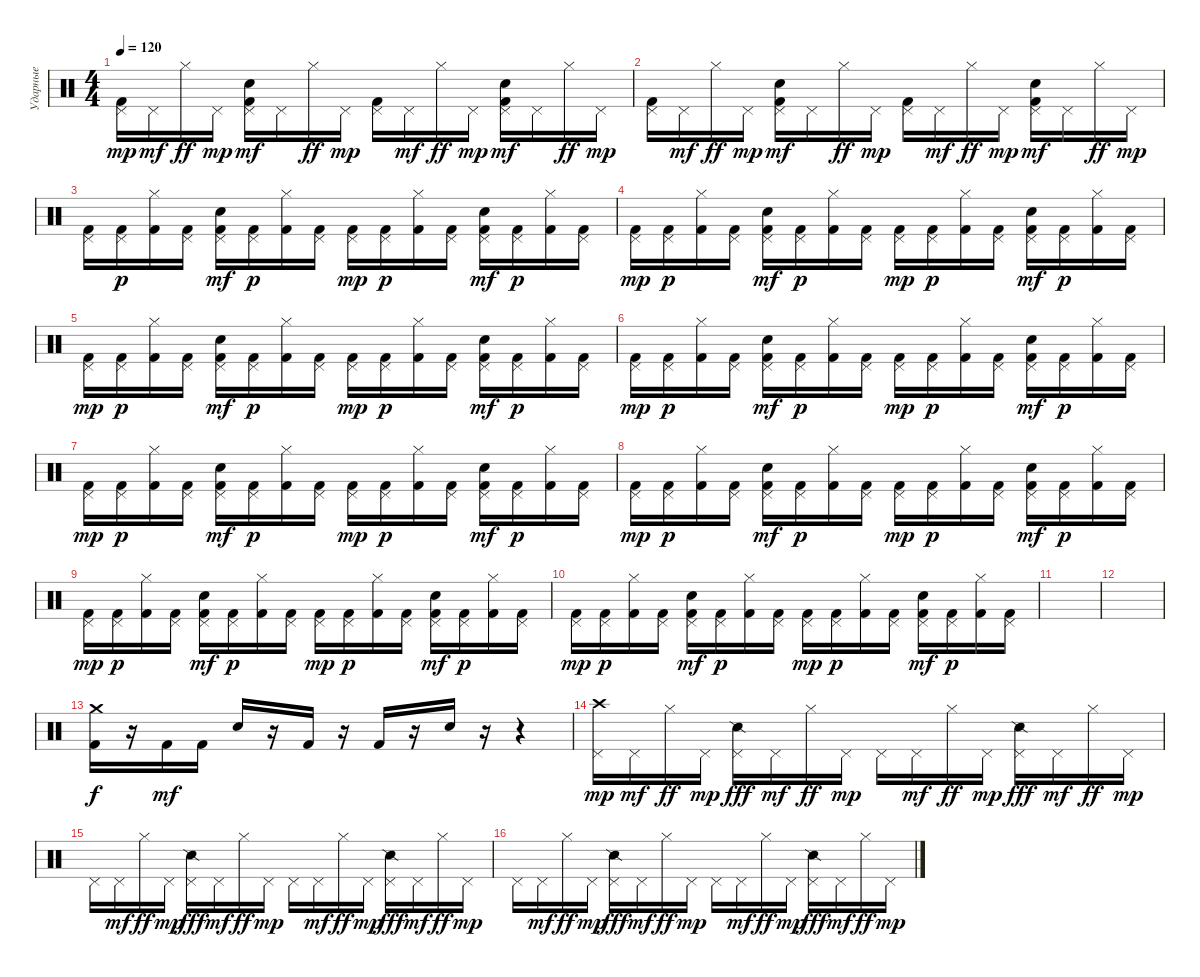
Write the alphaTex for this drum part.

\track ("Ударные" "Ударные") {instrument percussion}
\staff {score}
\articulation defaults
\ts (4 4)
\tempo 120
\clef neutral
\ks c
("Pedal Hi-Hat (hit)" "Kick (hit) 2").16{dy mp} "Pedal Hi-Hat (hit)".16{dy mf} "Hi-Hat (closed)".16{dy ff} "Pedal Hi-Hat (hit)".16{dy mp} ("Pedal Hi-Hat (hit)" "Electric Snare (hit)" "Kick (hit) 2").16{dy mf} "Pedal Hi-Hat (hit)".16 "Hi-Hat (closed)".16{dy ff} "Pedal Hi-Hat (hit)".16{dy mp} ("Pedal Hi-Hat (hit)" "Kick (hit) 2").16 "Pedal Hi-Hat (hit)".16{dy mf} "Hi-Hat (closed)".16{dy ff} "Pedal Hi-Hat (hit)".16{dy mp} ("Pedal Hi-Hat (hit)" "Electric Snare (hit)" "Kick (hit) 2").16{dy mf} "Pedal Hi-Hat (hit)".16 "Hi-Hat (closed)".16{dy ff} "Pedal Hi-Hat (hit)".16{dy mp} |
("Pedal Hi-Hat (hit)" "Kick (hit) 2").16 "Pedal Hi-Hat (hit)".16{dy mf} "Hi-Hat (closed)".16{dy ff} "Pedal Hi-Hat (hit)".16{dy mp} ("Pedal Hi-Hat (hit)" "Electric Snare (hit)" "Kick (hit) 2").16{dy mf} "Pedal Hi-Hat (hit)".16 "Hi-Hat (closed)".16{dy ff} "Pedal Hi-Hat (hit)".16{dy mp} ("Pedal Hi-Hat (hit)" "Kick (hit) 2").16 "Pedal Hi-Hat (hit)".16{dy mf} "Hi-Hat (closed)".16{dy ff} "Pedal Hi-Hat (hit)".16{dy mp} ("Pedal Hi-Hat (hit)" "Electric Snare (hit)" "Kick (hit) 2").16{dy mf} "Pedal Hi-Hat (hit)".16 "Hi-Hat (closed)".16{dy ff} "Pedal Hi-Hat (hit)".16{dy mp} |
("Pedal Hi-Hat (hit)" "Kick (hit) 2").16 ("Pedal Hi-Hat (hit)" "Kick (hit) 2").16{dy p} ("Hi-Hat (closed)" "Kick (hit) 2").16 ("Pedal Hi-Hat (hit)" "Kick (hit) 2").16 ("Pedal Hi-Hat (hit)" "Electric Snare (hit)" "Kick (hit) 2").16{dy mf} ("Pedal Hi-Hat (hit)" "Kick (hit) 2").16{dy p} ("Hi-Hat (closed)" "Kick (hit) 2").16 ("Pedal Hi-Hat (hit)" "Kick (hit) 2").16 ("Pedal Hi-Hat (hit)" "Kick (hit) 2").16{dy mp} ("Pedal Hi-Hat (hit)" "Kick (hit) 2").16{dy p} ("Hi-Hat (closed)" "Kick (hit) 2").16 ("Pedal Hi-Hat (hit)" "Kick (hit) 2").16 ("Pedal Hi-Hat (hit)" "Electric Snare (hit)" "Kick (hit) 2").16{dy mf} ("Pedal Hi-Hat (hit)" "Kick (hit) 2").16{dy p} ("Hi-Hat (closed)" "Kick (hit) 2").16 ("Pedal Hi-Hat (hit)" "Kick (hit) 2").16 |
("Pedal Hi-Hat (hit)" "Kick (hit) 2").16{dy mp} ("Pedal Hi-Hat (hit)" "Kick (hit) 2").16{dy p} ("Hi-Hat (closed)" "Kick (hit) 2").16 ("Pedal Hi-Hat (hit)" "Kick (hit) 2").16 ("Pedal Hi-Hat (hit)" "Electric Snare (hit)" "Kick (hit) 2").16{dy mf} ("Pedal Hi-Hat (hit)" "Kick (hit) 2").16{dy p} ("Hi-Hat (closed)" "Kick (hit) 2").16 ("Pedal Hi-Hat (hit)" "Kick (hit) 2").16 ("Pedal Hi-Hat (hit)" "Kick (hit) 2").16{dy mp} ("Pedal Hi-Hat (hit)" "Kick (hit) 2").16{dy p} ("Hi-Hat (closed)" "Kick (hit) 2").16 ("Pedal Hi-Hat (hit)" "Kick (hit) 2").16 ("Pedal Hi-Hat (hit)" "Electric Snare (hit)" "Kick (hit) 2").16{dy mf} ("Pedal Hi-Hat (hit)" "Kick (hit) 2").16{dy p} ("Hi-Hat (closed)" "Kick (hit) 2").16 ("Pedal Hi-Hat (hit)" "Kick (hit) 2").16 |
("Pedal Hi-Hat (hit)" "Kick (hit) 2").16{dy mp} ("Pedal Hi-Hat (hit)" "Kick (hit) 2").16{dy p} ("Hi-Hat (closed)" "Kick (hit) 2").16 ("Pedal Hi-Hat (hit)" "Kick (hit) 2").16 ("Pedal Hi-Hat (hit)" "Electric Snare (hit)" "Kick (hit) 2").16{dy mf} ("Pedal Hi-Hat (hit)" "Kick (hit) 2").16{dy p} ("Hi-Hat (closed)" "Kick (hit) 2").16 ("Pedal Hi-Hat (hit)" "Kick (hit) 2").16 ("Pedal Hi-Hat (hit)" "Kick (hit) 2").16{dy mp} ("Pedal Hi-Hat (hit)" "Kick (hit) 2").16{dy p} ("Hi-Hat (closed)" "Kick (hit) 2").16 ("Pedal Hi-Hat (hit)" "Kick (hit) 2").16 ("Pedal Hi-Hat (hit)" "Electric Snare (hit)" "Kick (hit) 2").16{dy mf} ("Pedal Hi-Hat (hit)" "Kick (hit) 2").16{dy p} ("Hi-Hat (closed)" "Kick (hit) 2").16 ("Pedal Hi-Hat (hit)" "Kick (hit) 2").16 |
("Pedal Hi-Hat (hit)" "Kick (hit) 2").16{dy mp} ("Pedal Hi-Hat (hit)" "Kick (hit) 2").16{dy p} ("Hi-Hat (closed)" "Kick (hit) 2").16 ("Pedal Hi-Hat (hit)" "Kick (hit) 2").16 ("Pedal Hi-Hat (hit)" "Electric Snare (hit)" "Kick (hit) 2").16{dy mf} ("Pedal Hi-Hat (hit)" "Kick (hit) 2").16{dy p} ("Hi-Hat (closed)" "Kick (hit) 2").16 ("Pedal Hi-Hat (hit)" "Kick (hit) 2").16 ("Pedal Hi-Hat (hit)" "Kick (hit) 2").16{dy mp} ("Pedal Hi-Hat (hit)" "Kick (hit) 2").16{dy p} ("Hi-Hat (closed)" "Kick (hit) 2").16 ("Pedal Hi-Hat (hit)" "Kick (hit) 2").16 ("Pedal Hi-Hat (hit)" "Electric Snare (hit)" "Kick (hit) 2").16{dy mf} ("Pedal Hi-Hat (hit)" "Kick (hit) 2").16{dy p} ("Hi-Hat (closed)" "Kick (hit) 2").16 ("Pedal Hi-Hat (hit)" "Kick (hit) 2").16 |
("Pedal Hi-Hat (hit)" "Kick (hit) 2").16{dy mp} ("Pedal Hi-Hat (hit)" "Kick (hit) 2").16{dy p} ("Hi-Hat (closed)" "Kick (hit) 2").16 ("Pedal Hi-Hat (hit)" "Kick (hit) 2").16 ("Pedal Hi-Hat (hit)" "Electric Snare (hit)" "Kick (hit) 2").16{dy mf} ("Pedal Hi-Hat (hit)" "Kick (hit) 2").16{dy p} ("Hi-Hat (closed)" "Kick (hit) 2").16 ("Pedal Hi-Hat (hit)" "Kick (hit) 2").16 ("Pedal Hi-Hat (hit)" "Kick (hit) 2").16{dy mp} ("Pedal Hi-Hat (hit)" "Kick (hit) 2").16{dy p} ("Hi-Hat (closed)" "Kick (hit) 2").16 ("Pedal Hi-Hat (hit)" "Kick (hit) 2").16 ("Pedal Hi-Hat (hit)" "Electric Snare (hit)" "Kick (hit) 2").16{dy mf} ("Pedal Hi-Hat (hit)" "Kick (hit) 2").16{dy p} ("Hi-Hat (closed)" "Kick (hit) 2").16 ("Pedal Hi-Hat (hit)" "Kick (hit) 2").16 |
("Pedal Hi-Hat (hit)" "Kick (hit) 2").16{dy mp} ("Pedal Hi-Hat (hit)" "Kick (hit) 2").16{dy p} ("Hi-Hat (closed)" "Kick (hit) 2").16 ("Pedal Hi-Hat (hit)" "Kick (hit) 2").16 ("Pedal Hi-Hat (hit)" "Electric Snare (hit)" "Kick (hit) 2").16{dy mf} ("Pedal Hi-Hat (hit)" "Kick (hit) 2").16{dy p} ("Hi-Hat (closed)" "Kick (hit) 2").16 ("Pedal Hi-Hat (hit)" "Kick (hit) 2").16 ("Pedal Hi-Hat (hit)" "Kick (hit) 2").16{dy mp} ("Pedal Hi-Hat (hit)" "Kick (hit) 2").16{dy p} ("Hi-Hat (closed)" "Kick (hit) 2").16 ("Pedal Hi-Hat (hit)" "Kick (hit) 2").16 ("Pedal Hi-Hat (hit)" "Electric Snare (hit)" "Kick (hit) 2").16{dy mf} ("Pedal Hi-Hat (hit)" "Kick (hit) 2").16{dy p} ("Hi-Hat (closed)" "Kick (hit) 2").16 ("Pedal Hi-Hat (hit)" "Kick (hit) 2").16 |
("Pedal Hi-Hat (hit)" "Kick (hit) 2").16{dy mp} ("Pedal Hi-Hat (hit)" "Kick (hit) 2").16{dy p} ("Hi-Hat (closed)" "Kick (hit) 2").16 ("Pedal Hi-Hat (hit)" "Kick (hit) 2").16 ("Pedal Hi-Hat (hit)" "Electric Snare (hit)" "Kick (hit) 2").16{dy mf} ("Pedal Hi-Hat (hit)" "Kick (hit) 2").16{dy p} ("Hi-Hat (closed)" "Kick (hit) 2").16 ("Pedal Hi-Hat (hit)" "Kick (hit) 2").16 ("Pedal Hi-Hat (hit)" "Kick (hit) 2").16{dy mp} ("Pedal Hi-Hat (hit)" "Kick (hit) 2").16{dy p} ("Hi-Hat (closed)" "Kick (hit) 2").16 ("Pedal Hi-Hat (hit)" "Kick (hit) 2").16 ("Pedal Hi-Hat (hit)" "Electric Snare (hit)" "Kick (hit) 2").16{dy mf} ("Pedal Hi-Hat (hit)" "Kick (hit) 2").16{dy p} ("Hi-Hat (closed)" "Kick (hit) 2").16 ("Pedal Hi-Hat (hit)" "Kick (hit) 2").16 |
("Pedal Hi-Hat (hit)" "Kick (hit) 2").16{dy mp} ("Pedal Hi-Hat (hit)" "Kick (hit) 2").16{dy p} ("Hi-Hat (closed)" "Kick (hit) 2").16 ("Pedal Hi-Hat (hit)" "Kick (hit) 2").16 ("Pedal Hi-Hat (hit)" "Electric Snare (hit)" "Kick (hit) 2").16{dy mf} ("Pedal Hi-Hat (hit)" "Kick (hit) 2").16{dy p} ("Hi-Hat (closed)" "Kick (hit) 2").16 ("Pedal Hi-Hat (hit)" "Kick (hit) 2").16 ("Pedal Hi-Hat (hit)" "Kick (hit) 2").16{dy mp} ("Pedal Hi-Hat (hit)" "Kick (hit) 2").16{dy p} ("Hi-Hat (closed)" "Kick (hit) 2").16 ("Pedal Hi-Hat (hit)" "Kick (hit) 2").16 ("Pedal Hi-Hat (hit)" "Electric Snare (hit)" "Kick (hit) 2").16{dy mf} ("Pedal Hi-Hat (hit)" "Kick (hit) 2").16{dy p} ("Hi-Hat (closed)" "Kick (hit) 2").16 ("Pedal Hi-Hat (hit)" "Kick (hit) 2").16 |
|
|
("Crash medium (hit)" "Kick (hit) 2").16{dy f} r.16 "Kick (hit) 2".16{dy mf} "Kick (hit) 2".16 "Electric Snare (hit)".16 r.16 "Kick (hit) 2".16 r.16 "Kick (hit) 2".16 r.16 "Electric Snare (hit)".16 r.16 r.4 |
("Crash high (hit)" "Pedal Hi-Hat (hit)").16{dy mp} "Pedal Hi-Hat (hit)".16{dy mf} "Hi-Hat (closed)".16{dy ff} "Pedal Hi-Hat (hit)".16{dy mp} ("Pedal Hi-Hat (hit)" "Snare (side stick) 2").16{dy fff} "Pedal Hi-Hat (hit)".16{dy mf} "Hi-Hat (closed)".16{dy ff} "Pedal Hi-Hat (hit)".16{dy mp} "Pedal Hi-Hat (hit)".16 "Pedal Hi-Hat (hit)".16{dy mf} "Hi-Hat (closed)".16{dy ff} "Pedal Hi-Hat (hit)".16{dy mp} ("Pedal Hi-Hat (hit)" "Snare (side stick) 2").16{dy fff} "Pedal Hi-Hat (hit)".16{dy mf} "Hi-Hat (closed)".16{dy ff} "Pedal Hi-Hat (hit)".16{dy mp} |
"Pedal Hi-Hat (hit)".16 "Pedal Hi-Hat (hit)".16{dy mf} "Hi-Hat (closed)".16{dy ff} "Pedal Hi-Hat (hit)".16{dy mp} ("Pedal Hi-Hat (hit)" "Snare (side stick) 2").16{dy fff} "Pedal Hi-Hat (hit)".16{dy mf} "Hi-Hat (closed)".16{dy ff} "Pedal Hi-Hat (hit)".16{dy mp} "Pedal Hi-Hat (hit)".16 "Pedal Hi-Hat (hit)".16{dy mf} "Hi-Hat (closed)".16{dy ff} "Pedal Hi-Hat (hit)".16{dy mp} ("Pedal Hi-Hat (hit)" "Snare (side stick) 2").16{dy fff} "Pedal Hi-Hat (hit)".16{dy mf} "Hi-Hat (closed)".16{dy ff} "Pedal Hi-Hat (hit)".16{dy mp} |
"Pedal Hi-Hat (hit)".16 "Pedal Hi-Hat (hit)".16{dy mf} "Hi-Hat (closed)".16{dy ff} "Pedal Hi-Hat (hit)".16{dy mp} ("Pedal Hi-Hat (hit)" "Snare (side stick) 2").16{dy fff} "Pedal Hi-Hat (hit)".16{dy mf} "Hi-Hat (closed)".16{dy ff} "Pedal Hi-Hat (hit)".16{dy mp} "Pedal Hi-Hat (hit)".16 "Pedal Hi-Hat (hit)".16{dy mf} "Hi-Hat (closed)".16{dy ff} "Pedal Hi-Hat (hit)".16{dy mp} ("Pedal Hi-Hat (hit)" "Snare (side stick) 2").16{dy fff} "Pedal Hi-Hat (hit)".16{dy mf} "Hi-Hat (closed)".16{dy ff} "Pedal Hi-Hat (hit)".16{dy mp}
